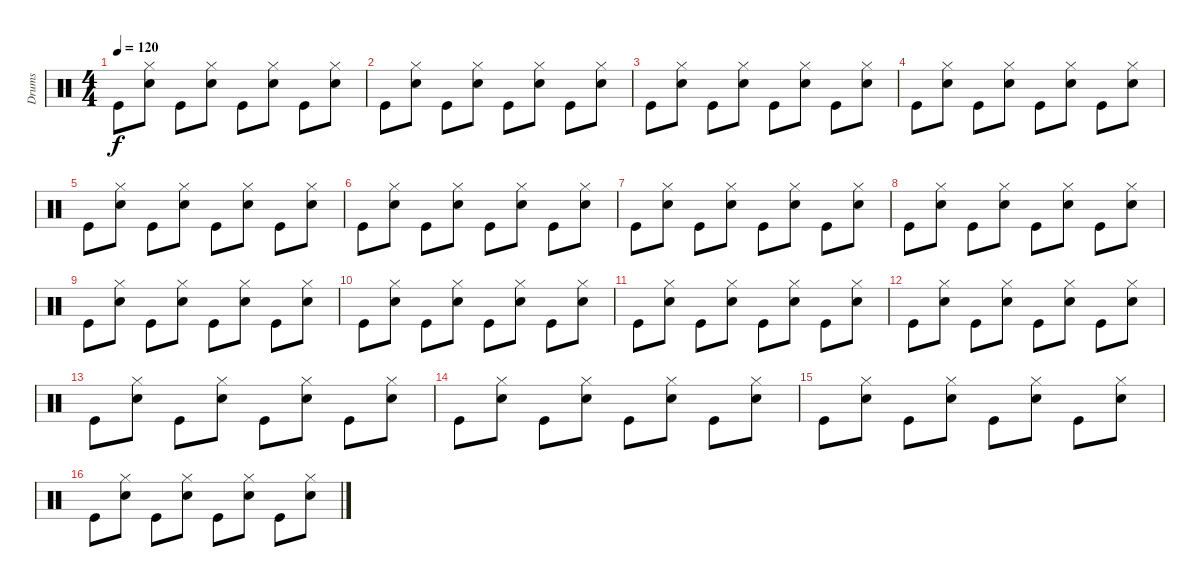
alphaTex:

\track ("Drums" "Drums") {instrument percussion}
\staff {score}
\articulation defaults
\ts (4 4)
\tempo 120
\clef neutral
\ks c "Kick (hit)".8{dy f}
("Hi-Hat (closed)" "Snare (hit) 2").8 "Kick (hit)".8 ("Hi-Hat (closed)" "Snare (hit) 2").8 "Kick (hit)".8 ("Hi-Hat (closed)" "Snare (hit) 2").8 "Kick (hit)".8 ("Hi-Hat (closed)" "Snare (hit) 2").8 |
"Kick (hit)".8 ("Hi-Hat (closed)" "Snare (hit) 2").8 "Kick (hit)".8 ("Hi-Hat (closed)" "Snare (hit) 2").8 "Kick (hit)".8 ("Hi-Hat (closed)" "Snare (hit) 2").8 "Kick (hit)".8 ("Hi-Hat (closed)" "Snare (hit) 2").8 |
"Kick (hit)".8 ("Hi-Hat (closed)" "Snare (hit) 2").8 "Kick (hit)".8 ("Hi-Hat (closed)" "Snare (hit) 2").8 "Kick (hit)".8 ("Hi-Hat (closed)" "Snare (hit) 2").8 "Kick (hit)".8 ("Hi-Hat (closed)" "Snare (hit) 2").8 |
"Kick (hit)".8 ("Hi-Hat (closed)" "Snare (hit) 2").8 "Kick (hit)".8 ("Hi-Hat (closed)" "Snare (hit) 2").8 "Kick (hit)".8 ("Hi-Hat (closed)" "Snare (hit) 2").8 "Kick (hit)".8 ("Hi-Hat (closed)" "Snare (hit) 2").8 |
"Kick (hit)".8 ("Hi-Hat (closed)" "Snare (hit) 2").8 "Kick (hit)".8 ("Hi-Hat (closed)" "Snare (hit) 2").8 "Kick (hit)".8 ("Hi-Hat (closed)" "Snare (hit) 2").8 "Kick (hit)".8 ("Hi-Hat (closed)" "Snare (hit) 2").8 |
"Kick (hit)".8 ("Hi-Hat (closed)" "Snare (hit) 2").8 "Kick (hit)".8 ("Hi-Hat (closed)" "Snare (hit) 2").8 "Kick (hit)".8 ("Hi-Hat (closed)" "Snare (hit) 2").8 "Kick (hit)".8 ("Hi-Hat (closed)" "Snare (hit) 2").8 |
"Kick (hit)".8 ("Hi-Hat (closed)" "Snare (hit) 2").8 "Kick (hit)".8 ("Hi-Hat (closed)" "Snare (hit) 2").8 "Kick (hit)".8 ("Hi-Hat (closed)" "Snare (hit) 2").8 "Kick (hit)".8 ("Hi-Hat (closed)" "Snare (hit) 2").8 |
"Kick (hit)".8 ("Hi-Hat (closed)" "Snare (hit) 2").8 "Kick (hit)".8 ("Hi-Hat (closed)" "Snare (hit) 2").8 "Kick (hit)".8 ("Hi-Hat (closed)" "Snare (hit) 2").8 "Kick (hit)".8 ("Hi-Hat (closed)" "Snare (hit) 2").8 |
"Kick (hit)".8 ("Hi-Hat (closed)" "Snare (hit) 2").8 "Kick (hit)".8 ("Hi-Hat (closed)" "Snare (hit) 2").8 "Kick (hit)".8 ("Hi-Hat (closed)" "Snare (hit) 2").8 "Kick (hit)".8 ("Hi-Hat (closed)" "Snare (hit) 2").8 |
"Kick (hit)".8 ("Hi-Hat (closed)" "Snare (hit) 2").8 "Kick (hit)".8 ("Hi-Hat (closed)" "Snare (hit) 2").8 "Kick (hit)".8 ("Hi-Hat (closed)" "Snare (hit) 2").8 "Kick (hit)".8 ("Hi-Hat (closed)" "Snare (hit) 2").8 |
"Kick (hit)".8 ("Hi-Hat (closed)" "Snare (hit) 2").8 "Kick (hit)".8 ("Hi-Hat (closed)" "Snare (hit) 2").8 "Kick (hit)".8 ("Hi-Hat (closed)" "Snare (hit) 2").8 "Kick (hit)".8 ("Hi-Hat (closed)" "Snare (hit) 2").8 |
"Kick (hit)".8 ("Hi-Hat (closed)" "Snare (hit) 2").8 "Kick (hit)".8 ("Hi-Hat (closed)" "Snare (hit) 2").8 "Kick (hit)".8 ("Hi-Hat (closed)" "Snare (hit) 2").8 "Kick (hit)".8 ("Hi-Hat (closed)" "Snare (hit) 2").8 |
"Kick (hit)".8 ("Hi-Hat (closed)" "Snare (hit) 2").8 "Kick (hit)".8 ("Hi-Hat (closed)" "Snare (hit) 2").8 "Kick (hit)".8 ("Hi-Hat (closed)" "Snare (hit) 2").8 "Kick (hit)".8 ("Hi-Hat (closed)" "Snare (hit) 2").8 |
"Kick (hit)".8 ("Hi-Hat (closed)" "Snare (hit) 2").8 "Kick (hit)".8 ("Hi-Hat (closed)" "Snare (hit) 2").8 "Kick (hit)".8 ("Hi-Hat (closed)" "Snare (hit) 2").8 "Kick (hit)".8 ("Hi-Hat (closed)" "Snare (hit) 2").8 |
"Kick (hit)".8 ("Hi-Hat (closed)" "Snare (hit) 2").8 "Kick (hit)".8 ("Hi-Hat (closed)" "Snare (hit) 2").8 "Kick (hit)".8 ("Hi-Hat (closed)" "Snare (hit) 2").8 "Kick (hit)".8 ("Hi-Hat (closed)" "Snare (hit) 2").8 |
"Kick (hit)".8 ("Hi-Hat (closed)" "Snare (hit) 2").8 "Kick (hit)".8 ("Hi-Hat (closed)" "Snare (hit) 2").8 "Kick (hit)".8 ("Hi-Hat (closed)" "Snare (hit) 2").8 "Kick (hit)".8 ("Hi-Hat (closed)" "Snare (hit) 2").8
